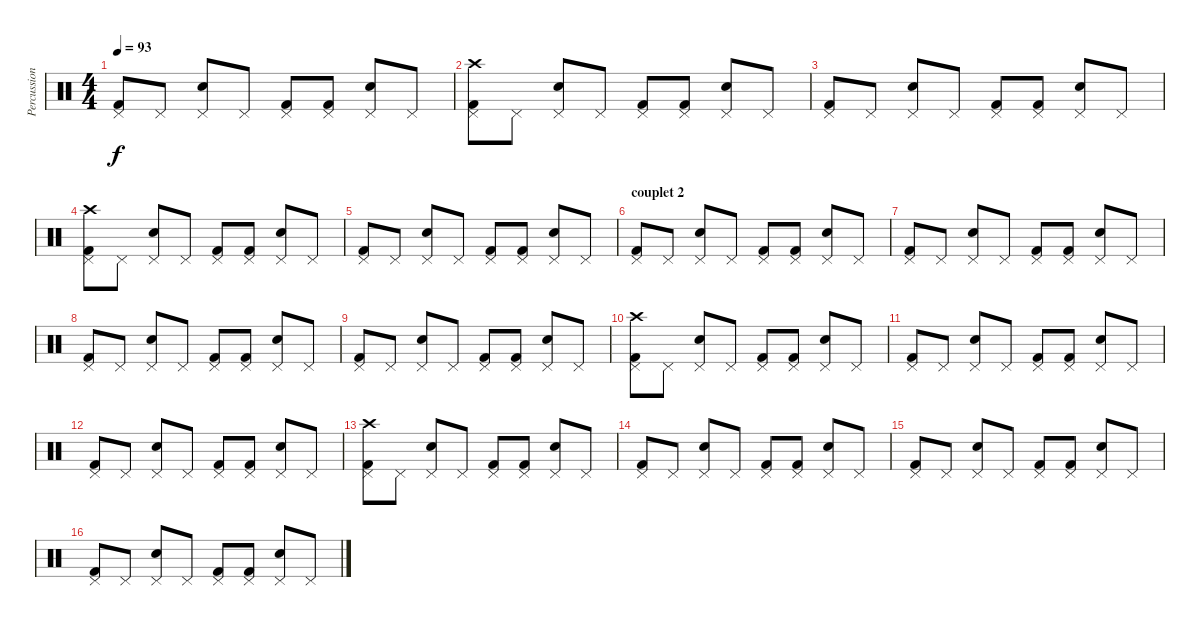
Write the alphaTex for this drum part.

\track ("Percussions" "Percussion") {instrument percussion}
\staff {score}
\articulation defaults
\ts (4 4)
\tempo 93
\clef neutral
\ks c
("Pedal Hi-Hat (hit)" "Kick (hit) 2").8{dy f} "Pedal Hi-Hat (hit)".8 ("Pedal Hi-Hat (hit)" "Electric Snare (hit)").8 "Pedal Hi-Hat (hit)".8 ("Pedal Hi-Hat (hit)" "Kick (hit) 2").8 ("Pedal Hi-Hat (hit)" "Kick (hit) 2").8 ("Pedal Hi-Hat (hit)" "Electric Snare (hit)").8 "Pedal Hi-Hat (hit)".8 |
("Pedal Hi-Hat (hit)" "Crash high (hit)" "Kick (hit) 2").8 "Pedal Hi-Hat (hit)".8 ("Pedal Hi-Hat (hit)" "Electric Snare (hit)").8 "Pedal Hi-Hat (hit)".8 ("Pedal Hi-Hat (hit)" "Kick (hit) 2").8 ("Pedal Hi-Hat (hit)" "Kick (hit) 2").8 ("Pedal Hi-Hat (hit)" "Electric Snare (hit)").8 "Pedal Hi-Hat (hit)".8 |
("Pedal Hi-Hat (hit)" "Kick (hit) 2").8 "Pedal Hi-Hat (hit)".8 ("Pedal Hi-Hat (hit)" "Electric Snare (hit)").8 "Pedal Hi-Hat (hit)".8 ("Pedal Hi-Hat (hit)" "Kick (hit) 2").8 ("Pedal Hi-Hat (hit)" "Kick (hit) 2").8 ("Pedal Hi-Hat (hit)" "Electric Snare (hit)").8 "Pedal Hi-Hat (hit)".8 |
("Pedal Hi-Hat (hit)" "Crash high (hit)" "Kick (hit) 2").8 "Pedal Hi-Hat (hit)".8 ("Pedal Hi-Hat (hit)" "Electric Snare (hit)").8 "Pedal Hi-Hat (hit)".8 ("Pedal Hi-Hat (hit)" "Kick (hit) 2").8 ("Pedal Hi-Hat (hit)" "Kick (hit) 2").8 ("Pedal Hi-Hat (hit)" "Electric Snare (hit)").8 "Pedal Hi-Hat (hit)".8 |
("Pedal Hi-Hat (hit)" "Kick (hit) 2").8 "Pedal Hi-Hat (hit)".8 ("Pedal Hi-Hat (hit)" "Electric Snare (hit)").8 "Pedal Hi-Hat (hit)".8 ("Pedal Hi-Hat (hit)" "Kick (hit) 2").8 ("Pedal Hi-Hat (hit)" "Kick (hit) 2").8 ("Pedal Hi-Hat (hit)" "Electric Snare (hit)").8 "Pedal Hi-Hat (hit)".8 |
\section ("" "couplet 2")
("Pedal Hi-Hat (hit)" "Kick (hit) 2").8 "Pedal Hi-Hat (hit)".8 ("Pedal Hi-Hat (hit)" "Electric Snare (hit)").8 "Pedal Hi-Hat (hit)".8 ("Pedal Hi-Hat (hit)" "Kick (hit) 2").8 ("Pedal Hi-Hat (hit)" "Kick (hit) 2").8 ("Pedal Hi-Hat (hit)" "Electric Snare (hit)").8 "Pedal Hi-Hat (hit)".8 |
("Pedal Hi-Hat (hit)" "Kick (hit) 2").8 "Pedal Hi-Hat (hit)".8 ("Pedal Hi-Hat (hit)" "Electric Snare (hit)").8 "Pedal Hi-Hat (hit)".8 ("Pedal Hi-Hat (hit)" "Kick (hit) 2").8 ("Pedal Hi-Hat (hit)" "Kick (hit) 2").8 ("Pedal Hi-Hat (hit)" "Electric Snare (hit)").8 "Pedal Hi-Hat (hit)".8 |
("Pedal Hi-Hat (hit)" "Kick (hit) 2").8 "Pedal Hi-Hat (hit)".8 ("Pedal Hi-Hat (hit)" "Electric Snare (hit)").8 "Pedal Hi-Hat (hit)".8 ("Pedal Hi-Hat (hit)" "Kick (hit) 2").8 ("Pedal Hi-Hat (hit)" "Kick (hit) 2").8 ("Pedal Hi-Hat (hit)" "Electric Snare (hit)").8 "Pedal Hi-Hat (hit)".8 |
("Pedal Hi-Hat (hit)" "Kick (hit) 2").8 "Pedal Hi-Hat (hit)".8 ("Pedal Hi-Hat (hit)" "Electric Snare (hit)").8 "Pedal Hi-Hat (hit)".8 ("Pedal Hi-Hat (hit)" "Kick (hit) 2").8 ("Pedal Hi-Hat (hit)" "Kick (hit) 2").8 ("Pedal Hi-Hat (hit)" "Electric Snare (hit)").8 "Pedal Hi-Hat (hit)".8 |
("Pedal Hi-Hat (hit)" "Crash high (hit)" "Kick (hit) 2").8 "Pedal Hi-Hat (hit)".8 ("Pedal Hi-Hat (hit)" "Electric Snare (hit)").8 "Pedal Hi-Hat (hit)".8 ("Pedal Hi-Hat (hit)" "Kick (hit) 2").8 ("Pedal Hi-Hat (hit)" "Kick (hit) 2").8 ("Pedal Hi-Hat (hit)" "Electric Snare (hit)").8 "Pedal Hi-Hat (hit)".8 |
("Pedal Hi-Hat (hit)" "Kick (hit) 2").8 "Pedal Hi-Hat (hit)".8 ("Pedal Hi-Hat (hit)" "Electric Snare (hit)").8 "Pedal Hi-Hat (hit)".8 ("Pedal Hi-Hat (hit)" "Kick (hit) 2").8 ("Pedal Hi-Hat (hit)" "Kick (hit) 2").8 ("Pedal Hi-Hat (hit)" "Electric Snare (hit)").8 "Pedal Hi-Hat (hit)".8 |
("Pedal Hi-Hat (hit)" "Kick (hit) 2").8 "Pedal Hi-Hat (hit)".8 ("Pedal Hi-Hat (hit)" "Electric Snare (hit)").8 "Pedal Hi-Hat (hit)".8 ("Pedal Hi-Hat (hit)" "Kick (hit) 2").8 ("Pedal Hi-Hat (hit)" "Kick (hit) 2").8 ("Pedal Hi-Hat (hit)" "Electric Snare (hit)").8 "Pedal Hi-Hat (hit)".8 |
("Pedal Hi-Hat (hit)" "Crash high (hit)" "Kick (hit) 2").8 "Pedal Hi-Hat (hit)".8 ("Pedal Hi-Hat (hit)" "Electric Snare (hit)").8 "Pedal Hi-Hat (hit)".8 ("Pedal Hi-Hat (hit)" "Kick (hit) 2").8 ("Pedal Hi-Hat (hit)" "Kick (hit) 2").8 ("Pedal Hi-Hat (hit)" "Electric Snare (hit)").8 "Pedal Hi-Hat (hit)".8 |
("Pedal Hi-Hat (hit)" "Kick (hit) 2").8 "Pedal Hi-Hat (hit)".8 ("Pedal Hi-Hat (hit)" "Electric Snare (hit)").8 "Pedal Hi-Hat (hit)".8 ("Pedal Hi-Hat (hit)" "Kick (hit) 2").8 ("Pedal Hi-Hat (hit)" "Kick (hit) 2").8 ("Pedal Hi-Hat (hit)" "Electric Snare (hit)").8 "Pedal Hi-Hat (hit)".8 |
("Pedal Hi-Hat (hit)" "Kick (hit) 2").8 "Pedal Hi-Hat (hit)".8 ("Pedal Hi-Hat (hit)" "Electric Snare (hit)").8 "Pedal Hi-Hat (hit)".8 ("Pedal Hi-Hat (hit)" "Kick (hit) 2").8 ("Pedal Hi-Hat (hit)" "Kick (hit) 2").8 ("Pedal Hi-Hat (hit)" "Electric Snare (hit)").8 "Pedal Hi-Hat (hit)".8 |
("Pedal Hi-Hat (hit)" "Kick (hit) 2").8 "Pedal Hi-Hat (hit)".8 ("Pedal Hi-Hat (hit)" "Electric Snare (hit)").8 "Pedal Hi-Hat (hit)".8 ("Pedal Hi-Hat (hit)" "Kick (hit) 2").8 ("Pedal Hi-Hat (hit)" "Kick (hit) 2").8 ("Pedal Hi-Hat (hit)" "Electric Snare (hit)").8 "Pedal Hi-Hat (hit)".8
